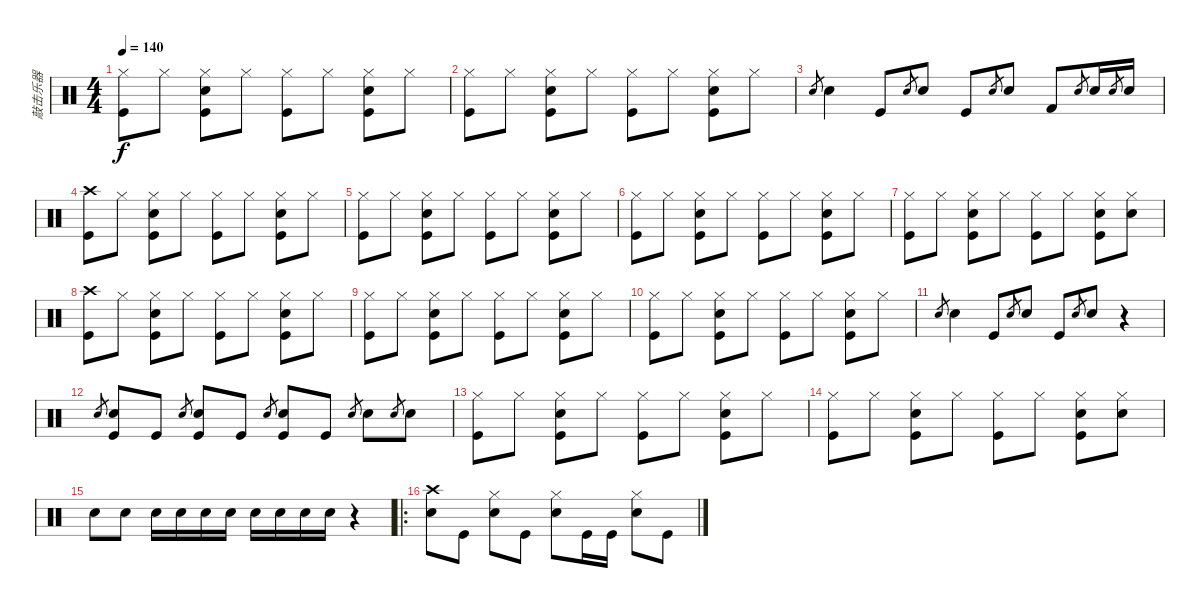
\track ("敲击乐器" "敲击乐器") {instrument percussion}
\staff {score}
\articulation defaults
\ts (4 4)
\tempo 140
\clef neutral
\ks c
("Hi-Hat (closed)" "Kick (hit)").8{dy f} "Hi-Hat (closed)".8 ("Hi-Hat (closed)" "Electric Snare (hit)" "Kick (hit)").8 "Hi-Hat (closed)".8 ("Hi-Hat (closed)" "Kick (hit)").8 "Hi-Hat (closed)".8 ("Hi-Hat (closed)" "Electric Snare (hit)" "Kick (hit)").8 "Hi-Hat (closed)".8 |
("Hi-Hat (closed)" "Kick (hit)").8 "Hi-Hat (closed)".8 ("Hi-Hat (closed)" "Electric Snare (hit)" "Kick (hit)").8 "Hi-Hat (closed)".8 ("Hi-Hat (closed)" "Kick (hit)").8 "Hi-Hat (closed)".8 ("Hi-Hat (closed)" "Electric Snare (hit)" "Kick (hit)").8 "Hi-Hat (closed)".8 |
"Electric Snare (hit)".8{gr} "Electric Snare (hit)".4 "Kick (hit)".8 "Electric Snare (hit)".8{gr} "Electric Snare (hit)".8 "Kick (hit)".8 "Electric Snare (hit)".8{gr} "Electric Snare (hit)".8 "Kick (hit) 2".8 "Electric Snare (hit)".8{gr} "Electric Snare (hit)".16 "Electric Snare (hit)".8{gr} "Electric Snare (hit)".16 |
("Crash high (hit)" "Kick (hit)").8 "Hi-Hat (closed)".8 ("Hi-Hat (closed)" "Electric Snare (hit)" "Kick (hit)").8 "Hi-Hat (closed)".8 ("Hi-Hat (closed)" "Kick (hit)").8 "Hi-Hat (closed)".8 ("Hi-Hat (closed)" "Electric Snare (hit)" "Kick (hit)").8 "Hi-Hat (closed)".8 |
("Hi-Hat (closed)" "Kick (hit)").8 "Hi-Hat (closed)".8 ("Hi-Hat (closed)" "Electric Snare (hit)" "Kick (hit)").8 "Hi-Hat (closed)".8 ("Hi-Hat (closed)" "Kick (hit)").8 "Hi-Hat (closed)".8 ("Hi-Hat (closed)" "Electric Snare (hit)" "Kick (hit)").8 "Hi-Hat (closed)".8 |
("Hi-Hat (closed)" "Kick (hit)").8 "Hi-Hat (closed)".8 ("Hi-Hat (closed)" "Electric Snare (hit)" "Kick (hit)").8 "Hi-Hat (closed)".8 ("Hi-Hat (closed)" "Kick (hit)").8 "Hi-Hat (closed)".8 ("Hi-Hat (closed)" "Electric Snare (hit)" "Kick (hit)").8 "Hi-Hat (closed)".8 |
("Hi-Hat (closed)" "Kick (hit)").8 "Hi-Hat (closed)".8 ("Hi-Hat (closed)" "Electric Snare (hit)" "Kick (hit)").8 "Hi-Hat (closed)".8 ("Hi-Hat (closed)" "Kick (hit)").8 "Hi-Hat (closed)".8 ("Hi-Hat (closed)" "Electric Snare (hit)" "Kick (hit)").8 ("Hi-Hat (closed)" "Electric Snare (hit)").8 |
("Crash high (hit)" "Kick (hit)").8 "Hi-Hat (closed)".8 ("Hi-Hat (closed)" "Electric Snare (hit)" "Kick (hit)").8 "Hi-Hat (closed)".8 ("Hi-Hat (closed)" "Kick (hit)").8 "Hi-Hat (closed)".8 ("Hi-Hat (closed)" "Electric Snare (hit)" "Kick (hit)").8 "Hi-Hat (closed)".8 |
("Hi-Hat (closed)" "Kick (hit)").8 "Hi-Hat (closed)".8 ("Hi-Hat (closed)" "Electric Snare (hit)" "Kick (hit)").8 "Hi-Hat (closed)".8 ("Hi-Hat (closed)" "Kick (hit)").8 "Hi-Hat (closed)".8 ("Hi-Hat (closed)" "Electric Snare (hit)" "Kick (hit)").8 "Hi-Hat (closed)".8 |
("Hi-Hat (closed)" "Kick (hit)").8 "Hi-Hat (closed)".8 ("Hi-Hat (closed)" "Electric Snare (hit)" "Kick (hit)").8 "Hi-Hat (closed)".8 ("Hi-Hat (closed)" "Kick (hit)").8 "Hi-Hat (closed)".8 ("Hi-Hat (closed)" "Electric Snare (hit)" "Kick (hit)").8 "Hi-Hat (closed)".8 |
"Electric Snare (hit)".8{gr} "Electric Snare (hit)".4 "Kick (hit)".8 "Electric Snare (hit)".8{gr} "Electric Snare (hit)".8 "Kick (hit)".8 "Electric Snare (hit)".8{gr} "Electric Snare (hit)".8 r.4 |
"Electric Snare (hit)".8{gr} ("Electric Snare (hit)" "Kick (hit)").8 "Kick (hit)".8 "Electric Snare (hit)".8{gr} ("Electric Snare (hit)" "Kick (hit)").8 "Kick (hit)".8 "Electric Snare (hit)".8{gr} ("Electric Snare (hit)" "Kick (hit)").8 "Kick (hit)".8 "Electric Snare (hit)".8{gr} "Electric Snare (hit)".8 "Electric Snare (hit)".8{gr} "Electric Snare (hit)".8 |
("Hi-Hat (closed)" "Kick (hit)").8 "Hi-Hat (closed)".8 ("Hi-Hat (closed)" "Electric Snare (hit)" "Kick (hit)").8 "Hi-Hat (closed)".8 ("Hi-Hat (closed)" "Kick (hit)").8 "Hi-Hat (closed)".8 ("Hi-Hat (closed)" "Electric Snare (hit)" "Kick (hit)").8 "Hi-Hat (closed)".8 |
("Hi-Hat (closed)" "Kick (hit)").8 "Hi-Hat (closed)".8 ("Hi-Hat (closed)" "Electric Snare (hit)" "Kick (hit)").8 "Hi-Hat (closed)".8 ("Hi-Hat (closed)" "Kick (hit)").8 "Hi-Hat (closed)".8 ("Hi-Hat (closed)" "Electric Snare (hit)" "Kick (hit)").8 ("Hi-Hat (closed)" "Electric Snare (hit)").8 |
"Electric Snare (hit)".8 "Electric Snare (hit)".8 "Electric Snare (hit)".16 "Electric Snare (hit)".16 "Electric Snare (hit)".16 "Electric Snare (hit)".16 "Electric Snare (hit)".16 "Electric Snare (hit)".16 "Electric Snare (hit)".16 "Electric Snare (hit)".16 r.4 |
\ro
("Crash high (hit)" "Electric Snare (hit)").8 "Kick (hit)".8 ("Hi-Hat (closed)" "Electric Snare (hit)").8 "Kick (hit)".8 ("Hi-Hat (closed)" "Electric Snare (hit)").8 "Kick (hit)".16 "Kick (hit)".16 ("Hi-Hat (closed)" "Electric Snare (hit)").8 "Kick (hit)".8
